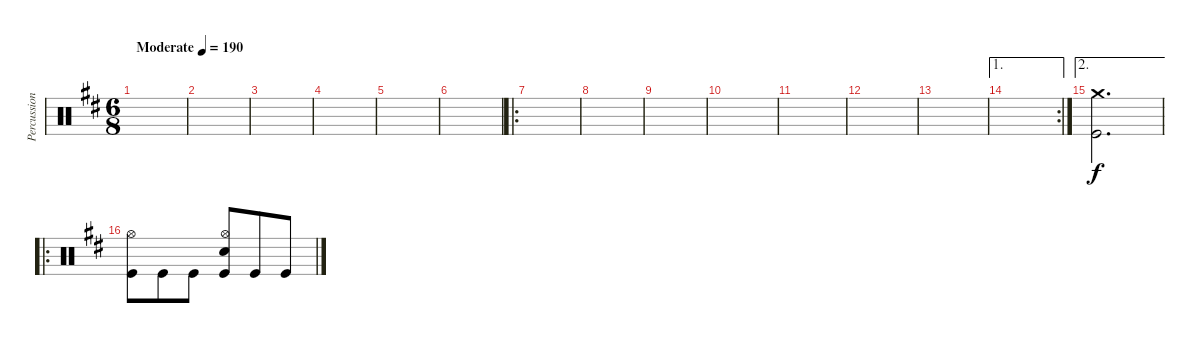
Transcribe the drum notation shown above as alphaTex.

\track ("Percussion" "Percussion") {instrument percussion}
\staff {score}
\articulation defaults
\ts (6 8)
\tempo (190 "Moderate")
\clef neutral
\ks d
|
|
|
|
|
|
\ro
|
|
|
|
|
|
|
\ae 1
\rc 2
|
\ae 2
("Crash medium (hit)" "Kick (hit)").2{d} |
\ro
("Hi-Hat (open)" "Kick (hit)").8 "Kick (hit)".8 "Kick (hit)".8 ("Hi-Hat (open)" "Snare (hit) 2" "Kick (hit)").8 "Kick (hit)".8 "Kick (hit)".8
